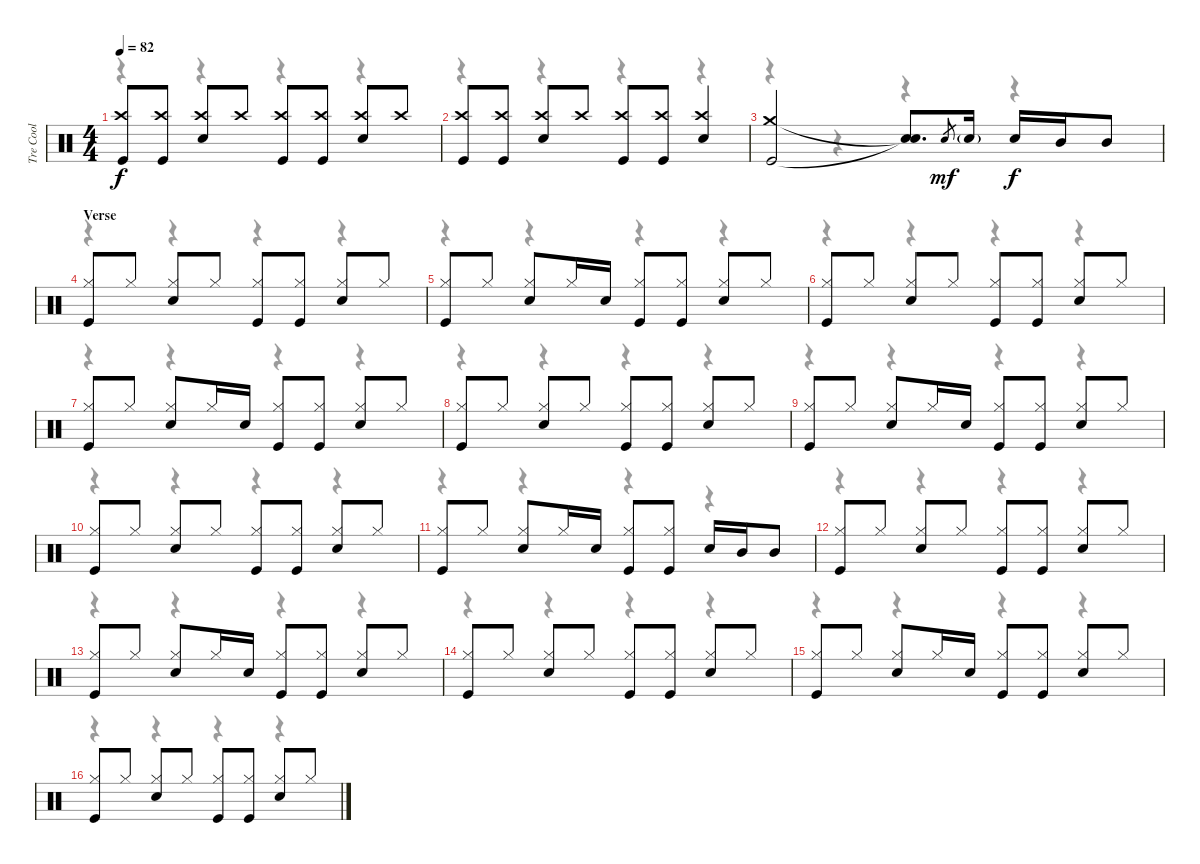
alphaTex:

\track ("Tre Cool" "Tre Cool") {instrument percussion}
\staff {score}
\articulation defaults
\voice
\ts (4 4)
\tempo 82
\clef neutral
\ks c
("Crash high (hit)" "Kick (hit)").8{dy f} ("Crash high (hit)" "Kick (hit)").8 ("Crash high (hit)" "Snare (hit) 2").8 "Crash high (hit)".8 ("Crash high (hit)" "Kick (hit)").8 ("Crash high (hit)" "Kick (hit)").8 ("Crash high (hit)" "Snare (hit) 2").8 "Crash high (hit)".8 |
("Crash high (hit)" "Kick (hit)").8 ("Crash high (hit)" "Kick (hit)").8 ("Crash high (hit)" "Snare (hit) 2").8 "Crash high (hit)".8 ("Crash high (hit)" "Kick (hit)").8 ("Crash high (hit)" "Kick (hit)").8 ("Crash high (hit)" "Snare (hit) 2").4 |
("Crash medium (hit)" "Kick (hit)").2 ("Snare (hit)"{t} "Snare (hit)"{t}).8{d} "Snare (hit)".8{gr dy mf} "Snare (hit) 2"{g}.16 "Snare (hit) 2".16{dy f} "Mid Tom (hit)".16 "Mid Tom (hit)".8 |
\section ("" "Verse ")
("Hi-Hat (closed)" "Kick (hit)").8 "Hi-Hat (closed)".8 ("Hi-Hat (closed)" "Snare (hit) 2").8 "Hi-Hat (closed)".8 ("Hi-Hat (closed)" "Kick (hit)").8 ("Hi-Hat (closed)" "Kick (hit)").8 ("Hi-Hat (closed)" "Snare (hit) 2").8 "Hi-Hat (closed)".8 |
("Hi-Hat (closed)" "Kick (hit)").8 "Hi-Hat (closed)".8 ("Hi-Hat (closed)" "Snare (hit) 2").8 "Hi-Hat (closed)".16 "Snare (hit) 2".16 ("Hi-Hat (closed)" "Kick (hit)").8 ("Hi-Hat (closed)" "Kick (hit)").8 ("Hi-Hat (closed)" "Snare (hit) 2").8 "Hi-Hat (closed)".8 |
("Hi-Hat (closed)" "Kick (hit)").8 "Hi-Hat (closed)".8 ("Hi-Hat (closed)" "Snare (hit) 2").8 "Hi-Hat (closed)".8 ("Hi-Hat (closed)" "Kick (hit)").8 ("Hi-Hat (closed)" "Kick (hit)").8 ("Hi-Hat (closed)" "Snare (hit) 2").8 "Hi-Hat (closed)".8 |
("Hi-Hat (closed)" "Kick (hit)").8 "Hi-Hat (closed)".8 ("Hi-Hat (closed)" "Snare (hit) 2").8 "Hi-Hat (closed)".16 "Snare (hit) 2".16 ("Hi-Hat (closed)" "Kick (hit)").8 ("Hi-Hat (closed)" "Kick (hit)").8 ("Hi-Hat (closed)" "Snare (hit) 2").8 "Hi-Hat (closed)".8 |
("Hi-Hat (closed)" "Kick (hit)").8 "Hi-Hat (closed)".8 ("Hi-Hat (closed)" "Snare (hit) 2").8 "Hi-Hat (closed)".8 ("Hi-Hat (closed)" "Kick (hit)").8 ("Hi-Hat (closed)" "Kick (hit)").8 ("Hi-Hat (closed)" "Snare (hit) 2").8 "Hi-Hat (closed)".8 |
("Hi-Hat (closed)" "Kick (hit)").8 "Hi-Hat (closed)".8 ("Hi-Hat (closed)" "Snare (hit) 2").8 "Hi-Hat (closed)".16 "Snare (hit) 2".16 ("Hi-Hat (closed)" "Kick (hit)").8 ("Hi-Hat (closed)" "Kick (hit)").8 ("Hi-Hat (closed)" "Snare (hit) 2").8 "Hi-Hat (closed)".8 |
("Hi-Hat (closed)" "Kick (hit)").8 "Hi-Hat (closed)".8 ("Hi-Hat (closed)" "Snare (hit) 2").8 "Hi-Hat (closed)".8 ("Hi-Hat (closed)" "Kick (hit)").8 ("Hi-Hat (closed)" "Kick (hit)").8 ("Hi-Hat (closed)" "Snare (hit) 2").8 "Hi-Hat (closed)".8 |
("Hi-Hat (closed)" "Kick (hit)").8 "Hi-Hat (closed)".8 ("Hi-Hat (closed)" "Snare (hit) 2").8 "Hi-Hat (closed)".16 "Snare (hit) 2".16 ("Hi-Hat (closed)" "Kick (hit)").8 ("Hi-Hat (closed)" "Kick (hit)").8 "Snare (hit) 2".16 "Mid Tom (hit)".16 "Mid Tom (hit)".8 |
("Hi-Hat (closed)" "Kick (hit)").8 "Hi-Hat (closed)".8 ("Hi-Hat (closed)" "Snare (hit) 2").8 "Hi-Hat (closed)".8 ("Hi-Hat (closed)" "Kick (hit)").8 ("Hi-Hat (closed)" "Kick (hit)").8 ("Hi-Hat (closed)" "Snare (hit) 2").8 "Hi-Hat (closed)".8 |
("Hi-Hat (closed)" "Kick (hit)").8 "Hi-Hat (closed)".8 ("Hi-Hat (closed)" "Snare (hit) 2").8 "Hi-Hat (closed)".16 "Snare (hit) 2".16 ("Hi-Hat (closed)" "Kick (hit)").8 ("Hi-Hat (closed)" "Kick (hit)").8 ("Hi-Hat (closed)" "Snare (hit) 2").8 "Hi-Hat (closed)".8 |
("Hi-Hat (closed)" "Kick (hit)").8 "Hi-Hat (closed)".8 ("Hi-Hat (closed)" "Snare (hit) 2").8 "Hi-Hat (closed)".8 ("Hi-Hat (closed)" "Kick (hit)").8 ("Hi-Hat (closed)" "Kick (hit)").8 ("Hi-Hat (closed)" "Snare (hit) 2").8 "Hi-Hat (closed)".8 |
("Hi-Hat (closed)" "Kick (hit)").8 "Hi-Hat (closed)".8 ("Hi-Hat (closed)" "Snare (hit) 2").8 "Hi-Hat (closed)".16 "Snare (hit) 2".16 ("Hi-Hat (closed)" "Kick (hit)").8 ("Hi-Hat (closed)" "Kick (hit)").8 ("Hi-Hat (closed)" "Snare (hit) 2").8 "Hi-Hat (closed)".8 |
("Hi-Hat (closed)" "Kick (hit)").8 "Hi-Hat (closed)".8 ("Hi-Hat (closed)" "Snare (hit) 2").8 "Hi-Hat (closed)".8 ("Hi-Hat (closed)" "Kick (hit)").8 ("Hi-Hat (closed)" "Kick (hit)").8 ("Hi-Hat (closed)" "Snare (hit) 2").8 "Hi-Hat (closed)".8
\voice
\clef neutral
\ottava regular
\simile none
\ks c
r.4{dy f} r.4 r.4 r.4 |
r.4 r.4 r.4 r.4 |
r.4 r.4 r.4 r.4 |
r.4 r.4 r.4 r.4 |
r.4 r.4 r.4 r.4 |
r.4 r.4 r.4 r.4 |
r.4 r.4 r.4 r.4 |
r.4 r.4 r.4 r.4 |
r.4 r.4 r.4 r.4 |
r.4 r.4 r.4 r.4 |
r.4 r.4 r.4 r.4 |
r.4 r.4 r.4 r.4 |
r.4 r.4 r.4 r.4 |
r.4 r.4 r.4 r.4 |
r.4 r.4 r.4 r.4 |
r.4 r.4 r.4 r.4
